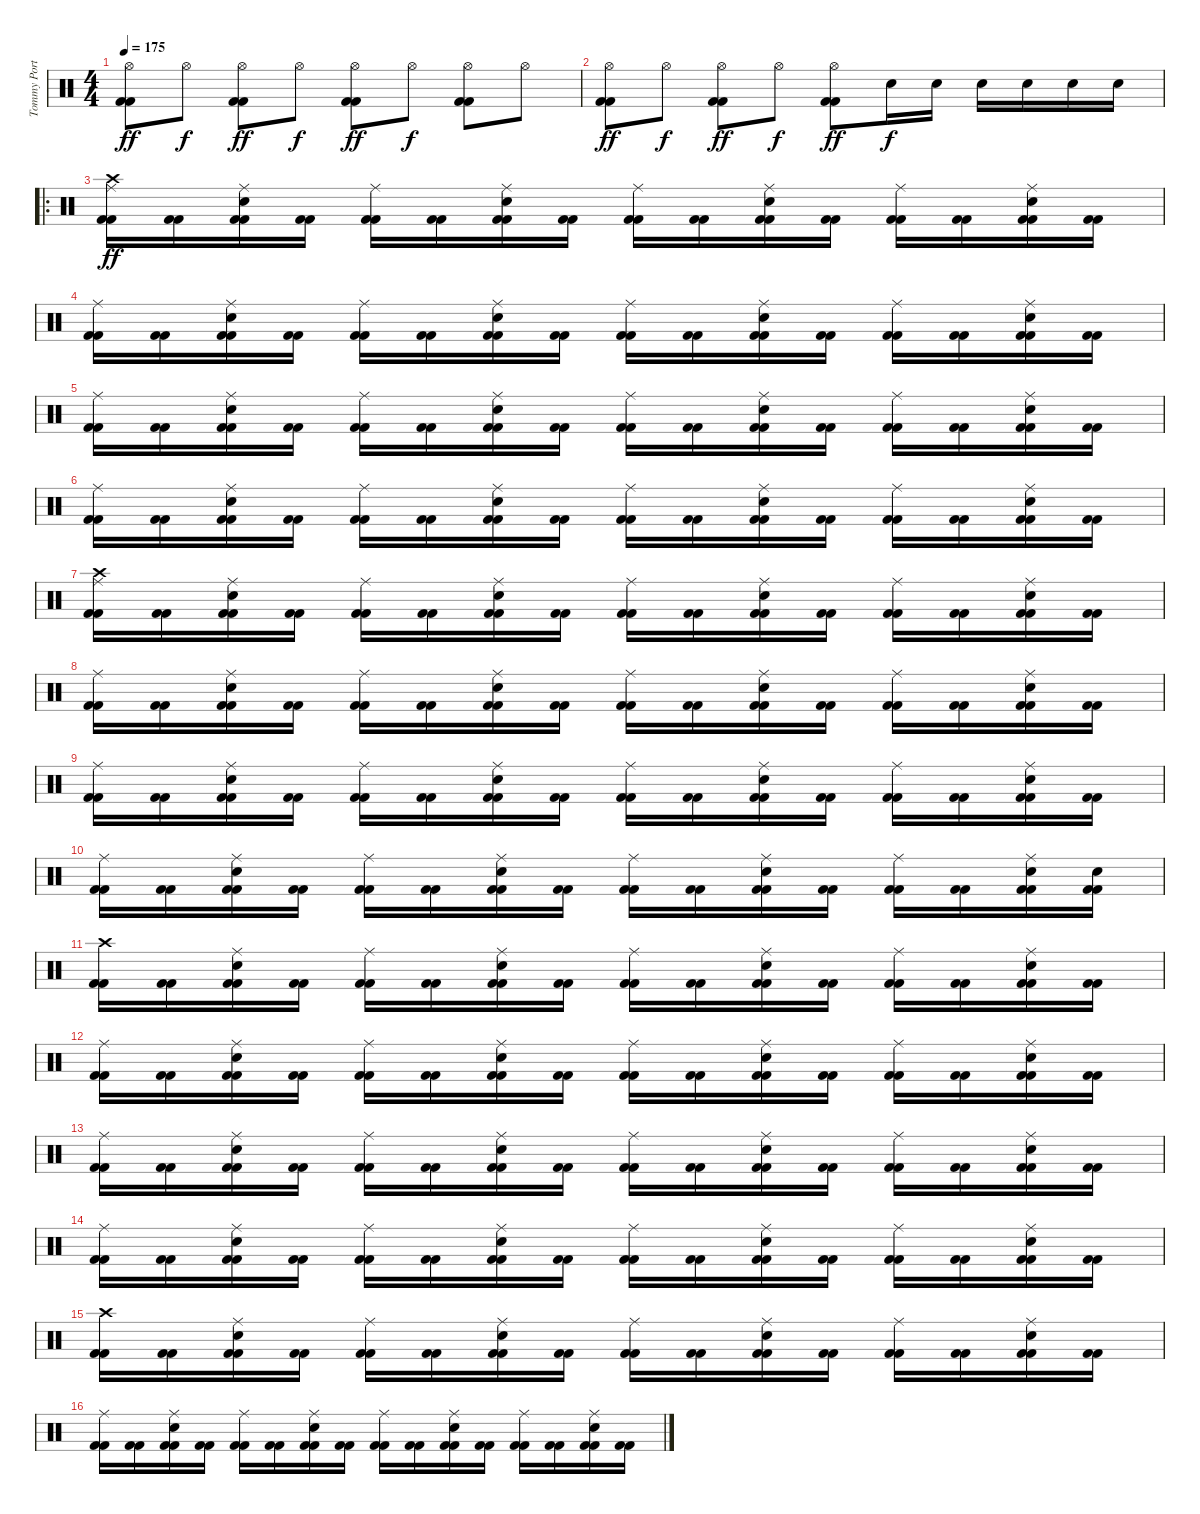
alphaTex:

\track ("Tommy Portimo" "Tommy Port") {instrument percussion}
\staff {score}
\articulation defaults
\ts (4 4)
\tempo 175
\clef neutral
\ks c
("Kick (hit) 2" "Kick (hit) 2" "Hi-Hat (open)").8{dy ff} "Hi-Hat (open)".8{dy f} ("Kick (hit) 2" "Kick (hit) 2" "Hi-Hat (open)").8{dy ff} "Hi-Hat (open)".8{dy f} ("Kick (hit) 2" "Kick (hit) 2" "Hi-Hat (open)").8{dy ff} "Hi-Hat (open)".8{dy f} ("Kick (hit) 2" "Kick (hit) 2" "Hi-Hat (open)").8 "Hi-Hat (open)".8 |
("Kick (hit) 2" "Kick (hit) 2" "Hi-Hat (open)").8{dy ff} "Hi-Hat (open)".8{dy f} ("Kick (hit) 2" "Kick (hit) 2" "Hi-Hat (open)").8{dy ff} "Hi-Hat (open)".8{dy f} ("Kick (hit) 2" "Kick (hit) 2" "Hi-Hat (open)").8{dy ff} "Electric Snare (hit)".16{dy f} "Electric Snare (hit)".16 "Electric Snare (hit)".16 "Electric Snare (hit)".16 "Electric Snare (hit)".16 "Electric Snare (hit)".16 |
\ro
("Kick (hit) 2" "Kick (hit) 2" "Ride (middle)" "Crash high (hit)").16{dy ff} ("Kick (hit) 2" "Kick (hit) 2").16 ("Kick (hit) 2" "Kick (hit) 2" "Ride (middle)" "Electric Snare (hit)").16 ("Kick (hit) 2" "Kick (hit) 2").16 ("Kick (hit) 2" "Kick (hit) 2" "Ride (middle)").16 ("Kick (hit) 2" "Kick (hit) 2").16 ("Kick (hit) 2" "Kick (hit) 2" "Ride (middle)" "Electric Snare (hit)").16 ("Kick (hit) 2" "Kick (hit) 2").16 ("Kick (hit) 2" "Kick (hit) 2" "Ride (middle)").16 ("Kick (hit) 2" "Kick (hit) 2").16 ("Kick (hit) 2" "Kick (hit) 2" "Ride (middle)" "Electric Snare (hit)").16 ("Kick (hit) 2" "Kick (hit) 2").16 ("Kick (hit) 2" "Kick (hit) 2" "Ride (middle)").16 ("Kick (hit) 2" "Kick (hit) 2").16 ("Kick (hit) 2" "Kick (hit) 2" "Ride (middle)" "Electric Snare (hit)").16 ("Kick (hit) 2" "Kick (hit) 2").16 |
("Kick (hit) 2" "Kick (hit) 2" "Ride (middle)").16 ("Kick (hit) 2" "Kick (hit) 2").16 ("Kick (hit) 2" "Kick (hit) 2" "Ride (middle)" "Electric Snare (hit)").16 ("Kick (hit) 2" "Kick (hit) 2").16 ("Kick (hit) 2" "Kick (hit) 2" "Ride (middle)").16 ("Kick (hit) 2" "Kick (hit) 2").16 ("Kick (hit) 2" "Kick (hit) 2" "Ride (middle)" "Electric Snare (hit)").16 ("Kick (hit) 2" "Kick (hit) 2").16 ("Kick (hit) 2" "Kick (hit) 2" "Ride (middle)").16 ("Kick (hit) 2" "Kick (hit) 2").16 ("Kick (hit) 2" "Kick (hit) 2" "Ride (middle)" "Electric Snare (hit)").16 ("Kick (hit) 2" "Kick (hit) 2").16 ("Kick (hit) 2" "Kick (hit) 2" "Ride (middle)").16 ("Kick (hit) 2" "Kick (hit) 2").16 ("Kick (hit) 2" "Kick (hit) 2" "Ride (middle)" "Electric Snare (hit)").16 ("Kick (hit) 2" "Kick (hit) 2").16 |
("Kick (hit) 2" "Kick (hit) 2" "Ride (middle)").16 ("Kick (hit) 2" "Kick (hit) 2").16 ("Kick (hit) 2" "Kick (hit) 2" "Ride (middle)" "Electric Snare (hit)").16 ("Kick (hit) 2" "Kick (hit) 2").16 ("Kick (hit) 2" "Kick (hit) 2" "Ride (middle)").16 ("Kick (hit) 2" "Kick (hit) 2").16 ("Kick (hit) 2" "Kick (hit) 2" "Ride (middle)" "Electric Snare (hit)").16 ("Kick (hit) 2" "Kick (hit) 2").16 ("Kick (hit) 2" "Kick (hit) 2" "Ride (middle)").16 ("Kick (hit) 2" "Kick (hit) 2").16 ("Kick (hit) 2" "Kick (hit) 2" "Ride (middle)" "Electric Snare (hit)").16 ("Kick (hit) 2" "Kick (hit) 2").16 ("Kick (hit) 2" "Kick (hit) 2" "Ride (middle)").16 ("Kick (hit) 2" "Kick (hit) 2").16 ("Kick (hit) 2" "Kick (hit) 2" "Ride (middle)" "Electric Snare (hit)").16 ("Kick (hit) 2" "Kick (hit) 2").16 |
("Kick (hit) 2" "Kick (hit) 2" "Ride (middle)").16 ("Kick (hit) 2" "Kick (hit) 2").16 ("Kick (hit) 2" "Kick (hit) 2" "Ride (middle)" "Electric Snare (hit)").16 ("Kick (hit) 2" "Kick (hit) 2").16 ("Kick (hit) 2" "Kick (hit) 2" "Ride (middle)").16 ("Kick (hit) 2" "Kick (hit) 2").16 ("Kick (hit) 2" "Kick (hit) 2" "Ride (middle)" "Electric Snare (hit)").16 ("Kick (hit) 2" "Kick (hit) 2").16 ("Kick (hit) 2" "Kick (hit) 2" "Ride (middle)").16 ("Kick (hit) 2" "Kick (hit) 2").16 ("Kick (hit) 2" "Kick (hit) 2" "Ride (middle)" "Electric Snare (hit)").16 ("Kick (hit) 2" "Kick (hit) 2").16 ("Kick (hit) 2" "Kick (hit) 2" "Ride (middle)").16 ("Kick (hit) 2" "Kick (hit) 2").16 ("Kick (hit) 2" "Kick (hit) 2" "Ride (middle)" "Electric Snare (hit)").16 ("Kick (hit) 2" "Kick (hit) 2").16 |
("Kick (hit) 2" "Kick (hit) 2" "Ride (middle)" "Crash high (hit)").16 ("Kick (hit) 2" "Kick (hit) 2").16 ("Kick (hit) 2" "Kick (hit) 2" "Ride (middle)" "Electric Snare (hit)").16 ("Kick (hit) 2" "Kick (hit) 2").16 ("Kick (hit) 2" "Kick (hit) 2" "Ride (middle)").16 ("Kick (hit) 2" "Kick (hit) 2").16 ("Kick (hit) 2" "Kick (hit) 2" "Ride (middle)" "Electric Snare (hit)").16 ("Kick (hit) 2" "Kick (hit) 2").16 ("Kick (hit) 2" "Kick (hit) 2" "Ride (middle)").16 ("Kick (hit) 2" "Kick (hit) 2").16 ("Kick (hit) 2" "Kick (hit) 2" "Ride (middle)" "Electric Snare (hit)").16 ("Kick (hit) 2" "Kick (hit) 2").16 ("Kick (hit) 2" "Kick (hit) 2" "Ride (middle)").16 ("Kick (hit) 2" "Kick (hit) 2").16 ("Kick (hit) 2" "Kick (hit) 2" "Ride (middle)" "Electric Snare (hit)").16 ("Kick (hit) 2" "Kick (hit) 2").16 |
("Kick (hit) 2" "Kick (hit) 2" "Ride (middle)").16 ("Kick (hit) 2" "Kick (hit) 2").16 ("Kick (hit) 2" "Kick (hit) 2" "Ride (middle)" "Electric Snare (hit)").16 ("Kick (hit) 2" "Kick (hit) 2").16 ("Kick (hit) 2" "Kick (hit) 2" "Ride (middle)").16 ("Kick (hit) 2" "Kick (hit) 2").16 ("Kick (hit) 2" "Kick (hit) 2" "Ride (middle)" "Electric Snare (hit)").16 ("Kick (hit) 2" "Kick (hit) 2").16 ("Kick (hit) 2" "Kick (hit) 2" "Ride (middle)").16 ("Kick (hit) 2" "Kick (hit) 2").16 ("Kick (hit) 2" "Kick (hit) 2" "Ride (middle)" "Electric Snare (hit)").16 ("Kick (hit) 2" "Kick (hit) 2").16 ("Kick (hit) 2" "Kick (hit) 2" "Ride (middle)").16 ("Kick (hit) 2" "Kick (hit) 2").16 ("Kick (hit) 2" "Kick (hit) 2" "Ride (middle)" "Electric Snare (hit)").16 ("Kick (hit) 2" "Kick (hit) 2").16 |
("Kick (hit) 2" "Kick (hit) 2" "Ride (middle)").16 ("Kick (hit) 2" "Kick (hit) 2").16 ("Kick (hit) 2" "Kick (hit) 2" "Ride (middle)" "Electric Snare (hit)").16 ("Kick (hit) 2" "Kick (hit) 2").16 ("Kick (hit) 2" "Kick (hit) 2" "Ride (middle)").16 ("Kick (hit) 2" "Kick (hit) 2").16 ("Kick (hit) 2" "Kick (hit) 2" "Ride (middle)" "Electric Snare (hit)").16 ("Kick (hit) 2" "Kick (hit) 2").16 ("Kick (hit) 2" "Kick (hit) 2" "Ride (middle)").16 ("Kick (hit) 2" "Kick (hit) 2").16 ("Kick (hit) 2" "Kick (hit) 2" "Ride (middle)" "Electric Snare (hit)").16 ("Kick (hit) 2" "Kick (hit) 2").16 ("Kick (hit) 2" "Kick (hit) 2" "Ride (middle)").16 ("Kick (hit) 2" "Kick (hit) 2").16 ("Kick (hit) 2" "Kick (hit) 2" "Ride (middle)" "Electric Snare (hit)").16 ("Kick (hit) 2" "Kick (hit) 2").16 |
("Kick (hit) 2" "Kick (hit) 2" "Ride (middle)").16 ("Kick (hit) 2" "Kick (hit) 2").16 ("Kick (hit) 2" "Kick (hit) 2" "Ride (middle)" "Electric Snare (hit)").16 ("Kick (hit) 2" "Kick (hit) 2").16 ("Kick (hit) 2" "Kick (hit) 2" "Ride (middle)").16 ("Kick (hit) 2" "Kick (hit) 2").16 ("Kick (hit) 2" "Kick (hit) 2" "Ride (middle)" "Electric Snare (hit)").16 ("Kick (hit) 2" "Kick (hit) 2").16 ("Kick (hit) 2" "Kick (hit) 2" "Ride (middle)").16 ("Kick (hit) 2" "Kick (hit) 2").16 ("Kick (hit) 2" "Kick (hit) 2" "Ride (middle)" "Electric Snare (hit)").16 ("Kick (hit) 2" "Kick (hit) 2").16 ("Kick (hit) 2" "Kick (hit) 2" "Ride (middle)").16 ("Kick (hit) 2" "Kick (hit) 2").16 ("Kick (hit) 2" "Kick (hit) 2" "Ride (middle)" "Electric Snare (hit)").16 ("Kick (hit) 2" "Kick (hit) 2" "Electric Snare (hit)").16 |
("Kick (hit) 2" "Kick (hit) 2" "Crash high (hit)").16 ("Kick (hit) 2" "Kick (hit) 2").16 ("Kick (hit) 2" "Kick (hit) 2" "Ride (middle)" "Electric Snare (hit)").16 ("Kick (hit) 2" "Kick (hit) 2").16 ("Kick (hit) 2" "Kick (hit) 2" "Ride (middle)").16 ("Kick (hit) 2" "Kick (hit) 2").16 ("Kick (hit) 2" "Kick (hit) 2" "Ride (middle)" "Electric Snare (hit)").16 ("Kick (hit) 2" "Kick (hit) 2").16 ("Kick (hit) 2" "Kick (hit) 2" "Ride (middle)").16 ("Kick (hit) 2" "Kick (hit) 2").16 ("Kick (hit) 2" "Kick (hit) 2" "Ride (middle)" "Electric Snare (hit)").16 ("Kick (hit) 2" "Kick (hit) 2").16 ("Kick (hit) 2" "Kick (hit) 2" "Ride (middle)").16 ("Kick (hit) 2" "Kick (hit) 2").16 ("Kick (hit) 2" "Kick (hit) 2" "Ride (middle)" "Electric Snare (hit)").16 ("Kick (hit) 2" "Kick (hit) 2").16 |
("Kick (hit) 2" "Kick (hit) 2" "Ride (middle)").16 ("Kick (hit) 2" "Kick (hit) 2").16 ("Kick (hit) 2" "Kick (hit) 2" "Ride (middle)" "Electric Snare (hit)").16 ("Kick (hit) 2" "Kick (hit) 2").16 ("Kick (hit) 2" "Kick (hit) 2" "Ride (middle)").16 ("Kick (hit) 2" "Kick (hit) 2").16 ("Kick (hit) 2" "Kick (hit) 2" "Ride (middle)" "Electric Snare (hit)").16 ("Kick (hit) 2" "Kick (hit) 2").16 ("Kick (hit) 2" "Kick (hit) 2" "Ride (middle)").16 ("Kick (hit) 2" "Kick (hit) 2").16 ("Kick (hit) 2" "Kick (hit) 2" "Ride (middle)" "Electric Snare (hit)").16 ("Kick (hit) 2" "Kick (hit) 2").16 ("Kick (hit) 2" "Kick (hit) 2" "Ride (middle)").16 ("Kick (hit) 2" "Kick (hit) 2").16 ("Kick (hit) 2" "Kick (hit) 2" "Ride (middle)" "Electric Snare (hit)").16 ("Kick (hit) 2" "Kick (hit) 2").16 |
("Kick (hit) 2" "Kick (hit) 2" "Ride (middle)").16 ("Kick (hit) 2" "Kick (hit) 2").16 ("Kick (hit) 2" "Kick (hit) 2" "Ride (middle)" "Electric Snare (hit)").16 ("Kick (hit) 2" "Kick (hit) 2").16 ("Kick (hit) 2" "Kick (hit) 2" "Ride (middle)").16 ("Kick (hit) 2" "Kick (hit) 2").16 ("Kick (hit) 2" "Kick (hit) 2" "Ride (middle)" "Electric Snare (hit)").16 ("Kick (hit) 2" "Kick (hit) 2").16 ("Kick (hit) 2" "Kick (hit) 2" "Ride (middle)").16 ("Kick (hit) 2" "Kick (hit) 2").16 ("Kick (hit) 2" "Kick (hit) 2" "Ride (middle)" "Electric Snare (hit)").16 ("Kick (hit) 2" "Kick (hit) 2").16 ("Kick (hit) 2" "Kick (hit) 2" "Ride (middle)").16 ("Kick (hit) 2" "Kick (hit) 2").16 ("Kick (hit) 2" "Kick (hit) 2" "Ride (middle)" "Electric Snare (hit)").16 ("Kick (hit) 2" "Kick (hit) 2").16 |
("Kick (hit) 2" "Kick (hit) 2" "Ride (middle)").16 ("Kick (hit) 2" "Kick (hit) 2").16 ("Kick (hit) 2" "Kick (hit) 2" "Ride (middle)" "Electric Snare (hit)").16 ("Kick (hit) 2" "Kick (hit) 2").16 ("Kick (hit) 2" "Kick (hit) 2" "Ride (middle)").16 ("Kick (hit) 2" "Kick (hit) 2").16 ("Kick (hit) 2" "Kick (hit) 2" "Ride (middle)" "Electric Snare (hit)").16 ("Kick (hit) 2" "Kick (hit) 2").16 ("Kick (hit) 2" "Kick (hit) 2" "Ride (middle)").16 ("Kick (hit) 2" "Kick (hit) 2").16 ("Kick (hit) 2" "Kick (hit) 2" "Ride (middle)" "Electric Snare (hit)").16 ("Kick (hit) 2" "Kick (hit) 2").16 ("Kick (hit) 2" "Kick (hit) 2" "Ride (middle)").16 ("Kick (hit) 2" "Kick (hit) 2").16 ("Kick (hit) 2" "Kick (hit) 2" "Ride (middle)" "Electric Snare (hit)").16 ("Kick (hit) 2" "Kick (hit) 2").16 |
("Kick (hit) 2" "Kick (hit) 2" "Crash high (hit)").16 ("Kick (hit) 2" "Kick (hit) 2").16 ("Kick (hit) 2" "Kick (hit) 2" "Ride (middle)" "Electric Snare (hit)").16 ("Kick (hit) 2" "Kick (hit) 2").16 ("Kick (hit) 2" "Kick (hit) 2" "Ride (middle)").16 ("Kick (hit) 2" "Kick (hit) 2").16 ("Kick (hit) 2" "Kick (hit) 2" "Ride (middle)" "Electric Snare (hit)").16 ("Kick (hit) 2" "Kick (hit) 2").16 ("Kick (hit) 2" "Kick (hit) 2" "Ride (middle)").16 ("Kick (hit) 2" "Kick (hit) 2").16 ("Kick (hit) 2" "Kick (hit) 2" "Ride (middle)" "Electric Snare (hit)").16 ("Kick (hit) 2" "Kick (hit) 2").16 ("Kick (hit) 2" "Kick (hit) 2" "Ride (middle)").16 ("Kick (hit) 2" "Kick (hit) 2").16 ("Kick (hit) 2" "Kick (hit) 2" "Ride (middle)" "Electric Snare (hit)").16 ("Kick (hit) 2" "Kick (hit) 2").16 |
("Kick (hit) 2" "Kick (hit) 2" "Ride (middle)").16 ("Kick (hit) 2" "Kick (hit) 2").16 ("Kick (hit) 2" "Kick (hit) 2" "Ride (middle)" "Electric Snare (hit)").16 ("Kick (hit) 2" "Kick (hit) 2").16 ("Kick (hit) 2" "Kick (hit) 2" "Ride (middle)").16 ("Kick (hit) 2" "Kick (hit) 2").16 ("Kick (hit) 2" "Kick (hit) 2" "Ride (middle)" "Electric Snare (hit)").16 ("Kick (hit) 2" "Kick (hit) 2").16 ("Kick (hit) 2" "Kick (hit) 2" "Ride (middle)").16 ("Kick (hit) 2" "Kick (hit) 2").16 ("Kick (hit) 2" "Kick (hit) 2" "Ride (middle)" "Electric Snare (hit)").16 ("Kick (hit) 2" "Kick (hit) 2").16 ("Kick (hit) 2" "Kick (hit) 2" "Ride (middle)").16 ("Kick (hit) 2" "Kick (hit) 2").16 ("Kick (hit) 2" "Kick (hit) 2" "Ride (middle)" "Electric Snare (hit)").16 ("Kick (hit) 2" "Kick (hit) 2").16
